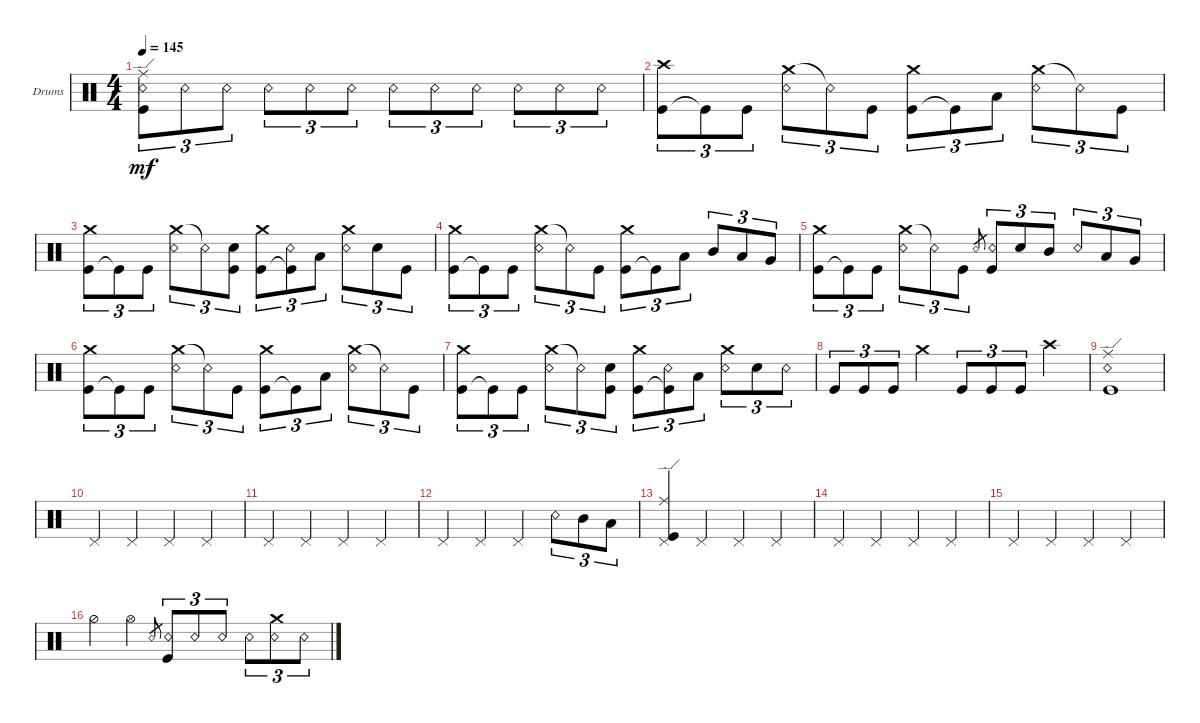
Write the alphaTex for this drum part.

\defaultSystemsLayout 4
\bracketExtendMode groupsimilarinstruments
\firstSystemTrackNameOrientation horizontal
\otherSystemsTrackNameOrientation horizontal
\track ("Drums" "Drums") {instrument percussion}
\staff {score}
\articulation defaults
\ts (4 4)
\tempo 145
\clef neutral
\ks c
("Snare (rim shot)" "Kick (hit)" "Ride (edge)").8{tu (3 2) dy mf} "Snare (rim shot)".8{tu (3 2)} "Snare (rim shot)".8{tu (3 2)} "Snare (rim shot)".8{tu (3 2)} "Snare (rim shot)".8{tu (3 2)} "Snare (rim shot)".8{tu (3 2)} "Snare (rim shot)".8{tu (3 2)} "Snare (rim shot)".8{tu (3 2)} "Snare (rim shot)".8{tu (3 2)} "Snare (rim shot)".8{tu (3 2)} "Snare (rim shot)".8{tu (3 2)} "Snare (rim shot)".8{tu (3 2)} |
("Kick (hit)" "Crash high (hit)").8{tu (3 2)} "Kick (hit)"{t}.8{tu (3 2)} "Kick (hit)".8{tu (3 2)} ("Crash medium (hit)" "Snare (rim shot)").8{tu (3 2)} "Snare (rim shot)"{t}.8{tu (3 2)} "Kick (hit)".8{tu (3 2)} ("Kick (hit)" "Crash medium (hit)").8{tu (3 2)} "Kick (hit)"{t}.8{tu (3 2)} "Low Tom (hit)".8{tu (3 2)} ("Crash medium (hit)" "Snare (rim shot)").8{tu (3 2)} "Snare (rim shot)"{t}.8{tu (3 2)} "Kick (hit)".8{tu (3 2)} |
("Kick (hit)" "Crash medium (hit)").8{tu (3 2)} "Kick (hit)"{t}.8{tu (3 2)} "Kick (hit)".8{tu (3 2)} ("Crash medium (hit)" "Snare (rim shot)").8{tu (3 2)} "Snare (rim shot)"{t}.8{tu (3 2)} ("Kick (hit)" "Snare (hit) 2").8{tu (3 2)} ("Kick (hit)" "Crash medium (hit)").8{tu (3 2)} ("Kick (hit)"{t} "Snare (rim shot)").8{tu (3 2)} "Low Tom (hit)".8{tu (3 2)} ("Crash medium (hit)" "Snare (rim shot)").8{tu (3 2)} "Snare (hit) 2".8{tu (3 2)} "Kick (hit)".8{tu (3 2)} |
("Kick (hit)" "Crash medium (hit)").8{tu (3 2)} "Kick (hit)"{t}.8{tu (3 2)} "Kick (hit)".8{tu (3 2)} ("Crash medium (hit)" "Snare (rim shot)").8{tu (3 2)} "Snare (rim shot)"{t}.8{tu (3 2)} "Kick (hit)".8{tu (3 2)} ("Kick (hit)" "Crash medium (hit)").8{tu (3 2)} "Kick (hit)"{t}.8{tu (3 2)} "Low Tom (hit)".8{tu (3 2)} "Mid Tom (hit)".8{tu (3 2)} "Low Tom (hit)".8{tu (3 2)} "Very Low Tom (hit)".8{tu (3 2)} |
("Kick (hit)" "Crash medium (hit)").8{tu (3 2)} "Kick (hit)"{t}.8{tu (3 2)} "Kick (hit)".8{tu (3 2)} ("Crash medium (hit)" "Snare (rim shot)").8{tu (3 2)} "Snare (rim shot)"{t}.8{tu (3 2)} "Kick (hit)".8{tu (3 2)} "Snare (rim shot)".8{gr} ("Kick (hit)" "Snare (rim shot)").8{tu (3 2)} "Snare (hit) 2".8{tu (3 2)} "Mid Tom (hit)".8{tu (3 2)} "Snare (rim shot)".8{tu (3 2)} "Low Tom (hit)".8{tu (3 2)} "Very Low Tom (hit)".8{tu (3 2)} |
("Kick (hit)" "Crash medium (hit)").8{tu (3 2)} "Kick (hit)"{t}.8{tu (3 2)} "Kick (hit)".8{tu (3 2)} ("Crash medium (hit)" "Snare (rim shot)").8{tu (3 2)} "Snare (rim shot)"{t}.8{tu (3 2)} "Kick (hit)".8{tu (3 2)} ("Kick (hit)" "Crash medium (hit)").8{tu (3 2)} "Kick (hit)"{t}.8{tu (3 2)} "Low Tom (hit)".8{tu (3 2)} ("Crash medium (hit)" "Snare (rim shot)").8{tu (3 2)} "Snare (rim shot)"{t}.8{tu (3 2)} "Kick (hit)".8{tu (3 2)} |
("Kick (hit)" "Crash medium (hit)").8{tu (3 2)} "Kick (hit)"{t}.8{tu (3 2)} "Kick (hit)".8{tu (3 2)} ("Crash medium (hit)" "Snare (rim shot)").8{tu (3 2)} "Snare (rim shot)"{t}.8{tu (3 2)} ("Kick (hit)" "Snare (hit) 2").8{tu (3 2)} ("Kick (hit)" "Crash medium (hit)").8{tu (3 2)} ("Kick (hit)"{t} "Snare (rim shot)").8{tu (3 2)} "Low Tom (hit)".8{tu (3 2)} ("Crash medium (hit)" "Snare (rim shot)").8{tu (3 2)} "Snare (hit) 2".8{tu (3 2)} "Snare (rim shot)".8{tu (3 2)} |
"Kick (hit)".8{tu (3 2)} "Kick (hit)".8{tu (3 2)} "Kick (hit)".8{tu (3 2)} "Crash medium (hit)".4 "Kick (hit)".8{tu (3 2)} "Kick (hit)".8{tu (3 2)} "Kick (hit)".8{tu (3 2)} "Crash high (hit)".4 |
("Kick (hit)" "Snare (rim shot)" "Ride (edge)").1 |
"Pedal Hi-Hat (hit)".4 "Pedal Hi-Hat (hit)".4 "Pedal Hi-Hat (hit)".4 "Pedal Hi-Hat (hit)".4 |
"Pedal Hi-Hat (hit)".4 "Pedal Hi-Hat (hit)".4 "Pedal Hi-Hat (hit)".4 "Pedal Hi-Hat (hit)".4 |
"Pedal Hi-Hat (hit)".4 "Pedal Hi-Hat (hit)".4 "Pedal Hi-Hat (hit)".4 "Snare (rim shot)".8{tu (3 2)} "Mid Tom (hit)".8{tu (3 2)} "Low Tom (hit)".8{tu (3 2)} |
("Kick (hit)" "Ride (edge)" "Pedal Hi-Hat (hit)").4 "Pedal Hi-Hat (hit)".4 "Pedal Hi-Hat (hit)".4 "Pedal Hi-Hat (hit)".4 |
"Pedal Hi-Hat (hit)".4 "Pedal Hi-Hat (hit)".4 "Pedal Hi-Hat (hit)".4 "Pedal Hi-Hat (hit)".4 |
"Pedal Hi-Hat (hit)".4 "Pedal Hi-Hat (hit)".4 "Pedal Hi-Hat (hit)".4 "Pedal Hi-Hat (hit)".4 |
"Hi-Hat (half)".4 "Hi-Hat (open)".4 "Snare (rim shot)".8{gr} ("Snare (rim shot)" "Kick (hit)").8{tu (3 2)} "Snare (rim shot)".8{tu (3 2)} "Snare (rim shot)".8{tu (3 2)} "Snare (rim shot)".8{tu (3 2)} ("Snare (rim shot)" "Crash medium (hit)").8{tu (3 2)} "Snare (rim shot)".8{tu (3 2)}
